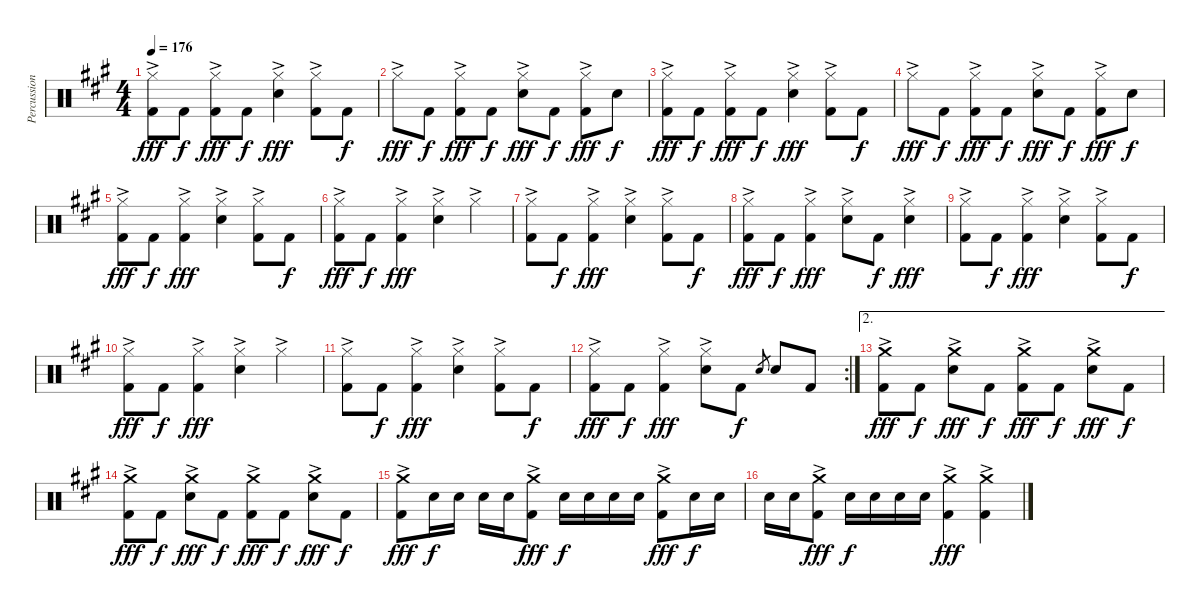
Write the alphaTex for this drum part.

\track ("Percussion" "Percussion") {instrument percussion}
\staff {score}
\articulation defaults
\ts (4 4)
\tempo 176
\clef neutral
\ks a
("Hi-Hat (closed)"{ac} "Kick (hit) 2").8{dy fff} "Kick (hit) 2".8{dy f} ("Hi-Hat (closed)"{ac} "Kick (hit) 2").8{dy fff} "Kick (hit) 2".8{dy f} ("Hi-Hat (closed)"{ac} "Snare (hit) 2").4{dy fff} ("Hi-Hat (closed)"{ac} "Kick (hit) 2").8 "Kick (hit) 2".8{dy f} |
"Hi-Hat (closed)"{ac}.8{dy fff} "Kick (hit) 2".8{dy f} ("Hi-Hat (closed)"{ac} "Kick (hit) 2").8{dy fff} "Kick (hit) 2".8{dy f} ("Hi-Hat (closed)"{ac} "Snare (hit) 2").8{dy fff} "Kick (hit) 2".8{dy f} ("Hi-Hat (closed)"{ac} "Kick (hit) 2").8{dy fff} "Snare (hit) 2".8{dy f} |
("Hi-Hat (closed)"{ac} "Kick (hit) 2").8{dy fff} "Kick (hit) 2".8{dy f} ("Hi-Hat (closed)"{ac} "Kick (hit) 2").8{dy fff} "Kick (hit) 2".8{dy f} ("Hi-Hat (closed)"{ac} "Snare (hit) 2").4{dy fff} ("Hi-Hat (closed)"{ac} "Kick (hit) 2").8 "Kick (hit) 2".8{dy f} |
"Hi-Hat (closed)"{ac}.8{dy fff} "Kick (hit) 2".8{dy f} ("Hi-Hat (closed)"{ac} "Kick (hit) 2").8{dy fff} "Kick (hit) 2".8{dy f} ("Hi-Hat (closed)"{ac} "Snare (hit) 2").8{dy fff} "Kick (hit) 2".8{dy f} ("Hi-Hat (closed)"{ac} "Kick (hit) 2").8{dy fff} "Snare (hit) 2".8{dy f} |
("Hi-Hat (closed)"{ac} "Kick (hit) 2").8{dy fff} "Kick (hit) 2".8{dy f} ("Hi-Hat (closed)"{ac} "Kick (hit) 2").4{dy fff} ("Hi-Hat (closed)"{ac} "Snare (hit) 2").4 ("Hi-Hat (closed)"{ac} "Kick (hit) 2").8 "Kick (hit) 2".8{dy f} |
("Hi-Hat (closed)"{ac} "Kick (hit) 2").8{dy fff} "Kick (hit) 2".8{dy f} ("Hi-Hat (closed)"{ac} "Kick (hit) 2").4{dy fff} ("Hi-Hat (closed)"{ac} "Snare (hit) 2").4 "Hi-Hat (closed)"{ac}.4 |
("Hi-Hat (closed)"{ac} "Kick (hit) 2").8 "Kick (hit) 2".8{dy f} ("Hi-Hat (closed)"{ac} "Kick (hit) 2").4{dy fff} ("Hi-Hat (closed)"{ac} "Snare (hit) 2").4 ("Hi-Hat (closed)"{ac} "Kick (hit) 2").8 "Kick (hit) 2".8{dy f} |
("Hi-Hat (closed)"{ac} "Kick (hit) 2").8{dy fff} "Kick (hit) 2".8{dy f} ("Hi-Hat (closed)"{ac} "Kick (hit) 2").4{dy fff} ("Hi-Hat (closed)"{ac} "Snare (hit) 2").8 "Kick (hit) 2".8{dy f} ("Hi-Hat (closed)"{ac} "Snare (hit) 2").4{dy fff} |
("Hi-Hat (closed)"{ac} "Kick (hit) 2").8 "Kick (hit) 2".8{dy f} ("Hi-Hat (closed)"{ac} "Kick (hit) 2").4{dy fff} ("Hi-Hat (closed)"{ac} "Snare (hit) 2").4 ("Hi-Hat (closed)"{ac} "Kick (hit) 2").8 "Kick (hit) 2".8{dy f} |
("Hi-Hat (closed)"{ac} "Kick (hit) 2").8{dy fff} "Kick (hit) 2".8{dy f} ("Hi-Hat (closed)"{ac} "Kick (hit) 2").4{dy fff} ("Hi-Hat (closed)"{ac} "Snare (hit) 2").4 "Hi-Hat (closed)"{ac}.4 |
("Hi-Hat (closed)"{ac} "Kick (hit) 2").8 "Kick (hit) 2".8{dy f} ("Hi-Hat (closed)"{ac} "Kick (hit) 2").4{dy fff} ("Hi-Hat (closed)"{ac} "Snare (hit) 2").4 ("Hi-Hat (closed)"{ac} "Kick (hit) 2").8 "Kick (hit) 2".8{dy f} |
\rc 2
("Hi-Hat (closed)"{ac} "Kick (hit) 2").8{dy fff} "Kick (hit) 2".8{dy f} ("Hi-Hat (closed)"{ac} "Kick (hit) 2").4{dy fff} ("Hi-Hat (closed)"{ac} "Snare (hit) 2").8 "Kick (hit) 2".8{dy f} "Snare (hit) 2".8{gr} "Snare (hit) 2".8 "Kick (hit) 2".8 |
\ae 2
("Crash medium (hit)"{ac} "Kick (hit) 2").8{dy fff} "Kick (hit) 2".8{dy f} ("Crash medium (hit)"{ac} "Snare (hit) 2").8{dy fff} "Kick (hit) 2".8{dy f} ("Crash medium (hit)"{ac} "Kick (hit) 2").8{dy fff} "Kick (hit) 2".8{dy f} ("Crash medium (hit)"{ac} "Snare (hit) 2").8{dy fff} "Kick (hit) 2".8{dy f} |
("Crash medium (hit)"{ac} "Kick (hit) 2").8{dy fff} "Kick (hit) 2".8{dy f} ("Crash medium (hit)"{ac} "Snare (hit) 2").8{dy fff} "Kick (hit) 2".8{dy f} ("Crash medium (hit)"{ac} "Kick (hit) 2").8{dy fff} "Kick (hit) 2".8{dy f} ("Crash medium (hit)"{ac} "Snare (hit) 2").8{dy fff} "Kick (hit) 2".8{dy f} |
("Crash medium (hit)"{ac} "Kick (hit) 2"{ac}).8{dy fff} "Snare (hit) 2".16{dy f} "Snare (hit) 2".16 "Snare (hit) 2".16 "Snare (hit) 2".16 ("Crash medium (hit)"{ac} "Kick (hit) 2"{ac}).8{dy fff} "Snare (hit) 2".16{dy f} "Snare (hit) 2".16 "Snare (hit) 2".16 "Snare (hit) 2".16 ("Crash medium (hit)"{ac} "Kick (hit) 2"{ac}).8{dy fff} "Snare (hit) 2".16{dy f} "Snare (hit) 2".16 |
"Snare (hit) 2".16 "Snare (hit) 2".16 ("Crash medium (hit)"{ac} "Kick (hit) 2"{ac}).8{dy fff} "Snare (hit) 2".16{dy f} "Snare (hit) 2".16 "Snare (hit) 2".16 "Snare (hit) 2".16 ("Crash medium (hit)"{ac} "Kick (hit) 2"{ac}).4{dy fff} ("Crash medium (hit)"{ac} "Kick (hit) 2"{ac}).4
